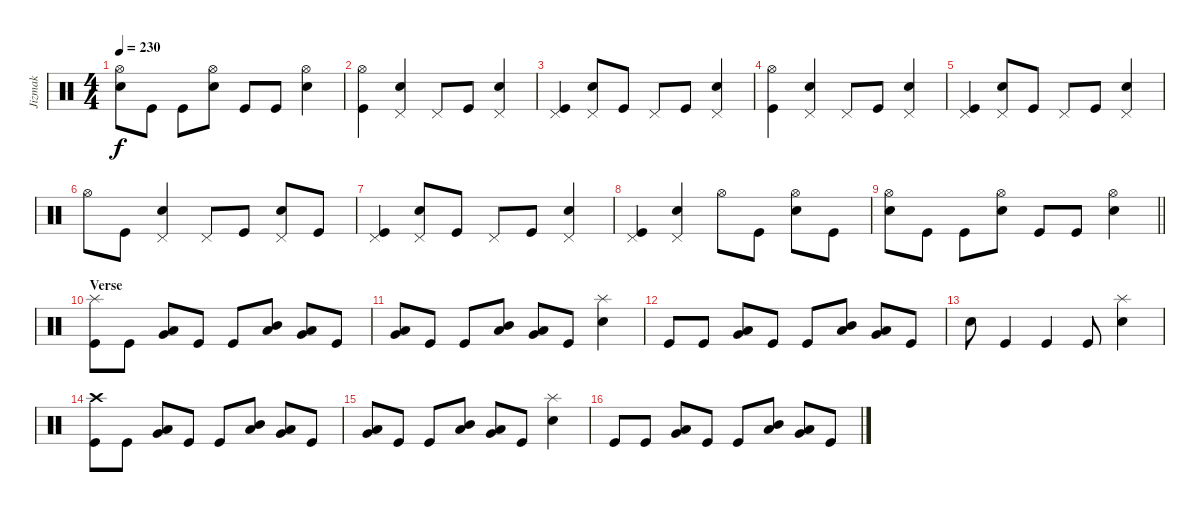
\track ("Jizmak" "Jizmak") {instrument percussion}
\staff {score}
\articulation defaults
\ts (4 4)
\tempo 230
\clef neutral
\ks c
("Hi-Hat (open)" "Snare (hit) 2").8{dy f} "Kick (hit)".8 "Kick (hit)".8 ("Hi-Hat (open)" "Snare (hit) 2").8 "Kick (hit)".8 "Kick (hit)".8 ("Hi-Hat (open)" "Snare (hit) 2").4 |
("Hi-Hat (open)" "Kick (hit)").4 ("Pedal Hi-Hat (hit)" "Snare (hit) 2").4 "Pedal Hi-Hat (hit)".8 "Kick (hit)".8 ("Pedal Hi-Hat (hit)" "Snare (hit) 2").4 |
("Pedal Hi-Hat (hit)" "Kick (hit)").4 ("Pedal Hi-Hat (hit)" "Snare (hit) 2").8 "Kick (hit)".8 "Pedal Hi-Hat (hit)".8 "Kick (hit)".8 ("Pedal Hi-Hat (hit)" "Snare (hit) 2").4 |
("Hi-Hat (open)" "Kick (hit)").4 ("Pedal Hi-Hat (hit)" "Snare (hit) 2").4 "Pedal Hi-Hat (hit)".8 "Kick (hit)".8 ("Pedal Hi-Hat (hit)" "Snare (hit) 2").4 |
("Pedal Hi-Hat (hit)" "Kick (hit)").4 ("Pedal Hi-Hat (hit)" "Snare (hit) 2").8 "Kick (hit)".8 "Pedal Hi-Hat (hit)".8 "Kick (hit)".8 ("Pedal Hi-Hat (hit)" "Snare (hit) 2").4 |
"Hi-Hat (open)".8 "Kick (hit)".8 ("Pedal Hi-Hat (hit)" "Snare (hit) 2").4 "Pedal Hi-Hat (hit)".8 "Kick (hit)".8 ("Pedal Hi-Hat (hit)" "Snare (hit) 2").8 "Kick (hit)".8 |
("Pedal Hi-Hat (hit)" "Kick (hit)").4 ("Pedal Hi-Hat (hit)" "Snare (hit) 2").8 "Kick (hit)".8 "Pedal Hi-Hat (hit)".8 "Kick (hit)".8 ("Pedal Hi-Hat (hit)" "Snare (hit) 2").4 |
("Pedal Hi-Hat (hit)" "Kick (hit)").4 ("Pedal Hi-Hat (hit)" "Snare (hit) 2").4 "Hi-Hat (open)".8 "Kick (hit)".8 ("Hi-Hat (open)" "Snare (hit) 2").8 "Kick (hit)".8 |
\barLineRight lightlight
("Hi-Hat (open)" "Snare (hit) 2").8 "Kick (hit)".8 "Kick (hit)".8 ("Hi-Hat (open)" "Snare (hit) 2").8 "Kick (hit)".8 "Kick (hit)".8 ("Hi-Hat (open)" "Snare (hit) 2").4 |
\section ("" "Verse")
("Splash (hit)" "Kick (hit)").8 "Kick (hit)".8 ("Low Tom (hit)" "Very Low Tom (hit)").8 "Kick (hit)".8 "Kick (hit)".8 ("Mid Tom (hit)" "Low Tom (hit)").8 ("Low Tom (hit)" "Very Low Tom (hit)").8 "Kick (hit)".8 |
("Low Tom (hit)" "Very Low Tom (hit)").8 "Kick (hit)".8 "Kick (hit)".8 ("Mid Tom (hit)" "Low Tom (hit)").8 ("Low Tom (hit)" "Very Low Tom (hit)").8 "Kick (hit)".8 ("Splash (hit)" "Snare (hit) 2").4 |
"Kick (hit)".8 "Kick (hit)".8 ("Low Tom (hit)" "Very Low Tom (hit)").8 "Kick (hit)".8 "Kick (hit)".8 ("Mid Tom (hit)" "Low Tom (hit)").8 ("Low Tom (hit)" "Very Low Tom (hit)").8 "Kick (hit)".8 |
"Snare (hit) 2".8 "Kick (hit)".4 "Kick (hit)".4 "Kick (hit)".8 ("Splash (hit)" "Snare (hit) 2").4 |
("Crash high (hit)" "Kick (hit)").8 "Kick (hit)".8 ("Low Tom (hit)" "Very Low Tom (hit)").8 "Kick (hit)".8 "Kick (hit)".8 ("Mid Tom (hit)" "Low Tom (hit)").8 ("Low Tom (hit)" "Very Low Tom (hit)").8 "Kick (hit)".8 |
("Low Tom (hit)" "Very Low Tom (hit)").8 "Kick (hit)".8 "Kick (hit)".8 ("Mid Tom (hit)" "Low Tom (hit)").8 ("Low Tom (hit)" "Very Low Tom (hit)").8 "Kick (hit)".8 ("Splash (hit)" "Snare (hit) 2").4 |
"Kick (hit)".8 "Kick (hit)".8 ("Low Tom (hit)" "Very Low Tom (hit)").8 "Kick (hit)".8 "Kick (hit)".8 ("Mid Tom (hit)" "Low Tom (hit)").8 ("Low Tom (hit)" "Very Low Tom (hit)").8 "Kick (hit)".8
